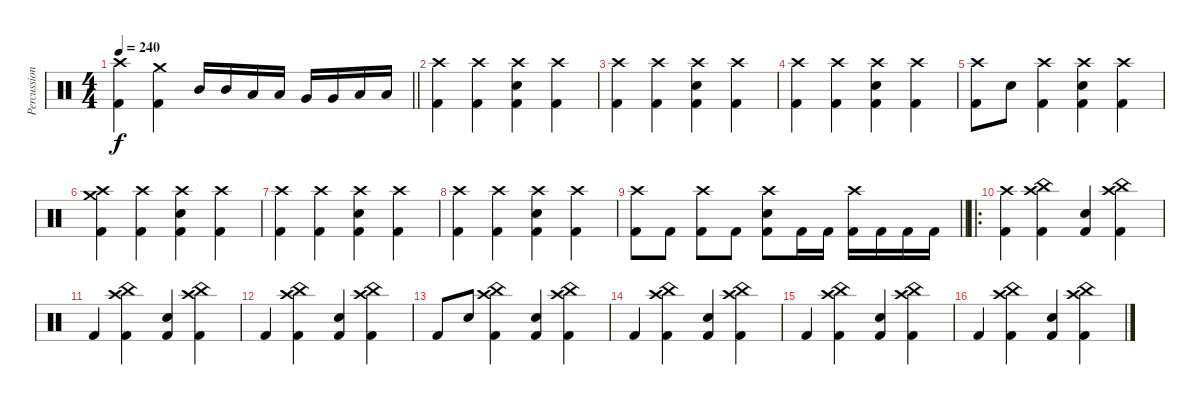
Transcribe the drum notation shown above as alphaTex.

\track ("Percussion" "Percussion") {instrument percussion}
\staff {score}
\articulation defaults
\ts (4 4)
\tempo 240
\clef neutral
\barLineRight lightlight
\ks c
("Crash high (hit)" "Kick (hit) 2").4{dy f} ("Crash medium (hit)" "Kick (hit) 2").4 "Mid Tom (hit)".16 "Mid Tom (hit)".16 "Low Tom (hit)".16 "Low Tom (hit)".16 "Very Low Tom (hit)".16 "Very Low Tom (hit)".16 "Low Floor Tom (hit)".16 "Low Floor Tom (hit)".16 |
("Crash high (hit)" "Kick (hit) 2").4 ("Crash high (hit)" "Kick (hit) 2").4 ("Crash high (hit)" "Snare (hit) 2" "Kick (hit) 2").4 ("Crash high (hit)" "Kick (hit) 2").4 |
("Crash high (hit)" "Kick (hit) 2").4 ("Crash high (hit)" "Kick (hit) 2").4 ("Crash high (hit)" "Snare (hit) 2" "Kick (hit) 2").4 ("Crash high (hit)" "Kick (hit) 2").4 |
("Crash high (hit)" "Kick (hit) 2").4 ("Crash high (hit)" "Kick (hit) 2").4 ("Crash high (hit)" "Snare (hit) 2" "Kick (hit) 2").4 ("Crash high (hit)" "Kick (hit) 2").4 |
("Crash high (hit)" "Kick (hit) 2").8 "Snare (hit) 2".8 ("Crash high (hit)" "Kick (hit) 2").4 ("Crash high (hit)" "Snare (hit) 2" "Kick (hit) 2").4 ("Crash high (hit)" "Kick (hit) 2").4 |
("Crash high (hit)" "Crash medium (hit)" "Kick (hit) 2").4 ("Crash high (hit)" "Kick (hit) 2").4 ("Crash high (hit)" "Snare (hit) 2" "Kick (hit) 2").4 ("Crash high (hit)" "Kick (hit) 2").4 |
("Crash high (hit)" "Kick (hit) 2").4 ("Crash high (hit)" "Kick (hit) 2").4 ("Crash high (hit)" "Snare (hit) 2" "Kick (hit) 2").4 ("Crash high (hit)" "Kick (hit) 2").4 |
("Crash high (hit)" "Kick (hit) 2").4 ("Crash high (hit)" "Kick (hit) 2").4 ("Crash high (hit)" "Snare (hit) 2" "Kick (hit) 2").4 ("Crash high (hit)" "Kick (hit) 2").4 |
\barLineRight lightlight
("Crash high (hit)" "Kick (hit) 2").8 "Kick (hit) 2".8 ("Crash high (hit)" "Kick (hit) 2").8 "Kick (hit) 2".8 ("Crash high (hit)" "Snare (hit) 2" "Kick (hit) 2").8 "Kick (hit) 2".16 "Kick (hit) 2".16 ("Crash high (hit)" "Kick (hit) 2").16 "Kick (hit) 2".16 "Kick (hit) 2".16 "Kick (hit) 2".16 |
\ro
("Crash high (hit)" "Kick (hit) 2").4 ("China (hit)" "Crash high (hit)" "Kick (hit) 2").4 ("Snare (hit) 2" "Kick (hit) 2").4 ("China (hit)" "Crash high (hit)" "Kick (hit) 2").4 |
"Kick (hit) 2".4 ("China (hit)" "Crash high (hit)" "Kick (hit) 2").4 ("Snare (hit) 2" "Kick (hit) 2").4 ("China (hit)" "Crash high (hit)" "Kick (hit) 2").4 |
"Kick (hit) 2".4 ("China (hit)" "Crash high (hit)" "Kick (hit) 2").4 ("Snare (hit) 2" "Kick (hit) 2").4 ("China (hit)" "Crash high (hit)" "Kick (hit) 2").4 |
"Kick (hit) 2".8 "Snare (hit) 2".8 ("China (hit)" "Crash high (hit)" "Kick (hit) 2").4 ("Snare (hit) 2" "Kick (hit) 2").4 ("China (hit)" "Crash high (hit)" "Kick (hit) 2").4 |
"Kick (hit) 2".4 ("China (hit)" "Crash high (hit)" "Kick (hit) 2").4 ("Snare (hit) 2" "Kick (hit) 2").4 ("China (hit)" "Crash high (hit)" "Kick (hit) 2").4 |
"Kick (hit) 2".4 ("China (hit)" "Crash high (hit)" "Kick (hit) 2").4 ("Snare (hit) 2" "Kick (hit) 2").4 ("China (hit)" "Crash high (hit)" "Kick (hit) 2").4 |
"Kick (hit) 2".4 ("China (hit)" "Crash high (hit)" "Kick (hit) 2").4 ("Snare (hit) 2" "Kick (hit) 2").4 ("China (hit)" "Crash high (hit)" "Kick (hit) 2").4
